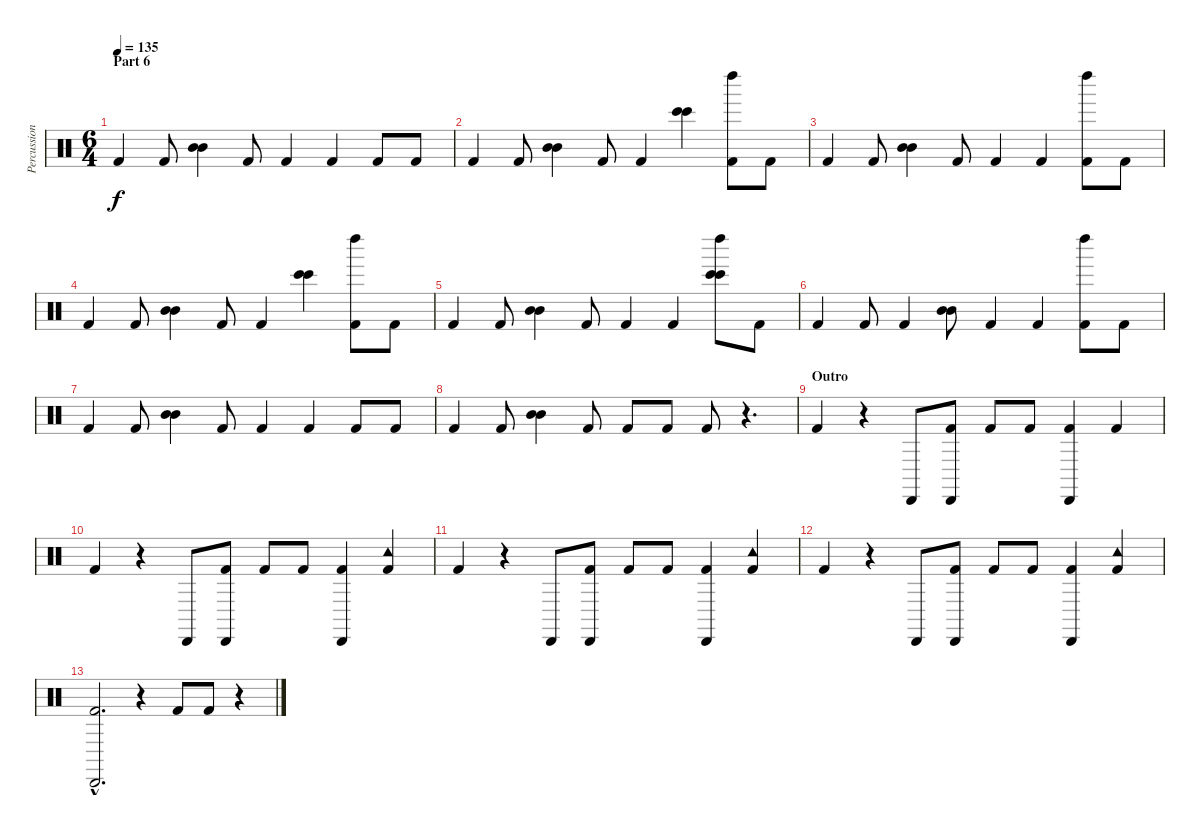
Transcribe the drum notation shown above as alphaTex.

\track ("Percussions" "Percussion") {instrument percussion}
\staff {score}
\articulation defaults
\ts (6 4)
\section ("" "Part 6")
\tempo 135
\clef neutral
\ks c "Kick (hit) 2".4{dy f} "Kick (hit) 2".8
("Mid Tom (hit)" "Mid Tom (hit)").4 "Kick (hit) 2".8 "Kick (hit) 2".4 "Kick (hit) 2".4 "Kick (hit) 2".8 "Kick (hit) 2".8 |
"Kick (hit) 2".4 "Kick (hit) 2".8 ("Mid Tom (hit)" "Mid Tom (hit)").4 "Kick (hit) 2".8 "Kick (hit) 2".4 ("Bongo High (hit)" "Bongo High (hit)").4 ("Kick (hit) 2" "Left Maraca (hit)").8 "Kick (hit) 2".8 |
"Kick (hit) 2".4 "Kick (hit) 2".8 ("Mid Tom (hit)" "Mid Tom (hit)").4 "Kick (hit) 2".8 "Kick (hit) 2".4 "Kick (hit) 2".4 ("Kick (hit) 2" "Left Maraca (hit)").8 "Kick (hit) 2".8 |
"Kick (hit) 2".4 "Kick (hit) 2".8 ("Mid Tom (hit)" "Mid Tom (hit)").4 "Kick (hit) 2".8 "Kick (hit) 2".4 ("Bongo High (hit)" "Bongo High (hit)").4 ("Kick (hit) 2" "Left Maraca (hit)").8 "Kick (hit) 2".8 |
"Kick (hit) 2".4 "Kick (hit) 2".8 ("Mid Tom (hit)" "Mid Tom (hit)").4 "Kick (hit) 2".8 "Kick (hit) 2".4 "Kick (hit) 2".4 ("Bongo High (hit)" "Bongo High (hit)" "Left Maraca (hit)").8 "Kick (hit) 2".8 |
"Kick (hit) 2".4 "Kick (hit) 2".8 "Kick (hit) 2".4 ("Mid Tom (hit)" "Mid Tom (hit)").8 "Kick (hit) 2".4 "Kick (hit) 2".4 ("Kick (hit) 2" "Left Maraca (hit)").8 "Kick (hit) 2".8 |
"Kick (hit) 2".4 "Kick (hit) 2".8 ("Mid Tom (hit)" "Mid Tom (hit)").4 "Kick (hit) 2".8 "Kick (hit) 2".4 "Kick (hit) 2".4 "Kick (hit) 2".8 "Kick (hit) 2".8 |
"Kick (hit) 2".4 "Kick (hit) 2".8 ("Mid Tom (hit)" "Mid Tom (hit)").4 "Kick (hit) 2".8 "Kick (hit) 2".8 "Kick (hit) 2".8 "Kick (hit) 2".8 r.4{d} |
\section ("" "Outro")
"Kick (hit) 2".4 r.4 "Cabasa (hit)".8 ("Kick (hit) 2" "Cabasa (hit)").8 "Kick (hit) 2".8 "Kick (hit) 2".8 ("Kick (hit) 2" "Cabasa (hit)").4 "Kick (hit) 2".4 |
"Kick (hit) 2".4 r.4 "Cabasa (hit)".8 ("Kick (hit) 2" "Cabasa (hit)").8 "Kick (hit) 2".8 "Kick (hit) 2".8 ("Kick (hit) 2" "Cabasa (hit)").4 ("Kick (hit) 2" "Tambourine (hit)").4 |
"Kick (hit) 2".4 r.4 "Cabasa (hit)".8 ("Kick (hit) 2" "Cabasa (hit)").8 "Kick (hit) 2".8 "Kick (hit) 2".8 ("Kick (hit) 2" "Cabasa (hit)").4 ("Kick (hit) 2" "Tambourine (hit)").4 |
"Kick (hit) 2".4 r.4 "Cabasa (hit)".8 ("Kick (hit) 2" "Cabasa (hit)").8 "Kick (hit) 2".8 "Kick (hit) 2".8 ("Kick (hit) 2" "Cabasa (hit)").4 ("Kick (hit) 2" "Tambourine (hit)").4 |
("Kick (hit) 2"{hac} "Cabasa (hit)"{hac}).2{d} r.4 "Kick (hit) 2".8 "Kick (hit) 2".8 r.4
